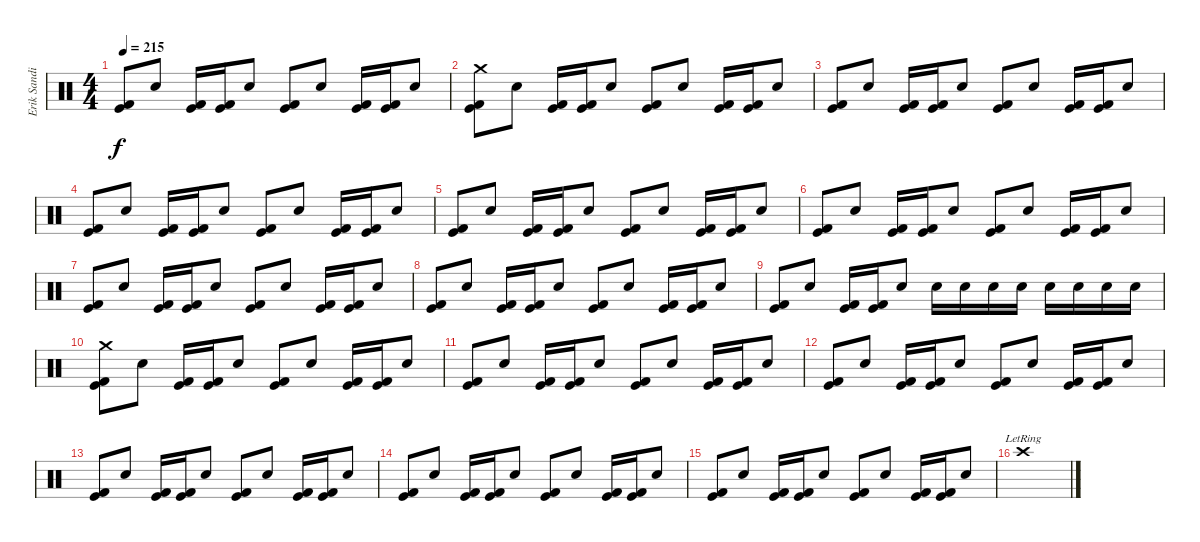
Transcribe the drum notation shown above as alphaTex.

\track ("Erik Sandin" "Erik Sandi") {instrument percussion}
\staff {score}
\articulation defaults
\ts (4 4)
\tempo 215
\clef neutral
\ks c
("Kick (hit) 2" "Kick (hit)").8{dy f} "Electric Snare (hit)".8 ("Kick (hit) 2" "Kick (hit)").16 ("Kick (hit) 2" "Kick (hit)").16 "Electric Snare (hit)".8 ("Kick (hit) 2" "Kick (hit)").8 "Electric Snare (hit)".8 ("Kick (hit) 2" "Kick (hit)").16 ("Kick (hit) 2" "Kick (hit)").16 "Electric Snare (hit)".8 |
("Crash medium (hit)" "Kick (hit) 2" "Kick (hit)").8 "Electric Snare (hit)".8 ("Kick (hit) 2" "Kick (hit)").16 ("Kick (hit) 2" "Kick (hit)").16 "Electric Snare (hit)".8 ("Kick (hit) 2" "Kick (hit)").8 "Electric Snare (hit)".8 ("Kick (hit) 2" "Kick (hit)").16 ("Kick (hit) 2" "Kick (hit)").16 "Electric Snare (hit)".8 |
("Kick (hit) 2" "Kick (hit)").8 "Electric Snare (hit)".8 ("Kick (hit) 2" "Kick (hit)").16 ("Kick (hit) 2" "Kick (hit)").16 "Electric Snare (hit)".8 ("Kick (hit) 2" "Kick (hit)").8 "Electric Snare (hit)".8 ("Kick (hit) 2" "Kick (hit)").16 ("Kick (hit) 2" "Kick (hit)").16 "Electric Snare (hit)".8 |
("Kick (hit) 2" "Kick (hit)").8 "Electric Snare (hit)".8 ("Kick (hit) 2" "Kick (hit)").16 ("Kick (hit) 2" "Kick (hit)").16 "Electric Snare (hit)".8 ("Kick (hit) 2" "Kick (hit)").8 "Electric Snare (hit)".8 ("Kick (hit) 2" "Kick (hit)").16 ("Kick (hit) 2" "Kick (hit)").16 "Electric Snare (hit)".8 |
("Kick (hit) 2" "Kick (hit)").8 "Electric Snare (hit)".8 ("Kick (hit) 2" "Kick (hit)").16 ("Kick (hit) 2" "Kick (hit)").16 "Electric Snare (hit)".8 ("Kick (hit) 2" "Kick (hit)").8 "Electric Snare (hit)".8 ("Kick (hit) 2" "Kick (hit)").16 ("Kick (hit) 2" "Kick (hit)").16 "Electric Snare (hit)".8 |
("Kick (hit) 2" "Kick (hit)").8 "Electric Snare (hit)".8 ("Kick (hit) 2" "Kick (hit)").16 ("Kick (hit) 2" "Kick (hit)").16 "Electric Snare (hit)".8 ("Kick (hit) 2" "Kick (hit)").8 "Electric Snare (hit)".8 ("Kick (hit) 2" "Kick (hit)").16 ("Kick (hit) 2" "Kick (hit)").16 "Electric Snare (hit)".8 |
("Kick (hit) 2" "Kick (hit)").8 "Electric Snare (hit)".8 ("Kick (hit) 2" "Kick (hit)").16 ("Kick (hit) 2" "Kick (hit)").16 "Electric Snare (hit)".8 ("Kick (hit) 2" "Kick (hit)").8 "Electric Snare (hit)".8 ("Kick (hit) 2" "Kick (hit)").16 ("Kick (hit) 2" "Kick (hit)").16 "Electric Snare (hit)".8 |
("Kick (hit) 2" "Kick (hit)").8 "Electric Snare (hit)".8 ("Kick (hit) 2" "Kick (hit)").16 ("Kick (hit) 2" "Kick (hit)").16 "Electric Snare (hit)".8 ("Kick (hit) 2" "Kick (hit)").8 "Electric Snare (hit)".8 ("Kick (hit) 2" "Kick (hit)").16 ("Kick (hit) 2" "Kick (hit)").16 "Electric Snare (hit)".8 |
("Kick (hit) 2" "Kick (hit)").8 "Electric Snare (hit)".8 ("Kick (hit) 2" "Kick (hit)").16 ("Kick (hit) 2" "Kick (hit)").16 "Electric Snare (hit)".8 "Electric Snare (hit)".16 "Electric Snare (hit)".16 "Electric Snare (hit)".16 "Electric Snare (hit)".16 "Electric Snare (hit)".16 "Electric Snare (hit)".16 "Electric Snare (hit)".16 "Electric Snare (hit)".16 |
("Crash medium (hit)" "Kick (hit) 2" "Kick (hit)").8 "Electric Snare (hit)".8 ("Kick (hit) 2" "Kick (hit)").16 ("Kick (hit) 2" "Kick (hit)").16 "Electric Snare (hit)".8 ("Kick (hit) 2" "Kick (hit)").8 "Electric Snare (hit)".8 ("Kick (hit) 2" "Kick (hit)").16 ("Kick (hit) 2" "Kick (hit)").16 "Electric Snare (hit)".8 |
("Kick (hit) 2" "Kick (hit)").8 "Electric Snare (hit)".8 ("Kick (hit) 2" "Kick (hit)").16 ("Kick (hit) 2" "Kick (hit)").16 "Electric Snare (hit)".8 ("Kick (hit) 2" "Kick (hit)").8 "Electric Snare (hit)".8 ("Kick (hit) 2" "Kick (hit)").16 ("Kick (hit) 2" "Kick (hit)").16 "Electric Snare (hit)".8 |
("Kick (hit) 2" "Kick (hit)").8 "Electric Snare (hit)".8 ("Kick (hit) 2" "Kick (hit)").16 ("Kick (hit) 2" "Kick (hit)").16 "Electric Snare (hit)".8 ("Kick (hit) 2" "Kick (hit)").8 "Electric Snare (hit)".8 ("Kick (hit) 2" "Kick (hit)").16 ("Kick (hit) 2" "Kick (hit)").16 "Electric Snare (hit)".8 |
("Kick (hit) 2" "Kick (hit)").8 "Electric Snare (hit)".8 ("Kick (hit) 2" "Kick (hit)").16 ("Kick (hit) 2" "Kick (hit)").16 "Electric Snare (hit)".8 ("Kick (hit) 2" "Kick (hit)").8 "Electric Snare (hit)".8 ("Kick (hit) 2" "Kick (hit)").16 ("Kick (hit) 2" "Kick (hit)").16 "Electric Snare (hit)".8 |
("Kick (hit) 2" "Kick (hit)").8 "Electric Snare (hit)".8 ("Kick (hit) 2" "Kick (hit)").16 ("Kick (hit) 2" "Kick (hit)").16 "Electric Snare (hit)".8 ("Kick (hit) 2" "Kick (hit)").8 "Electric Snare (hit)".8 ("Kick (hit) 2" "Kick (hit)").16 ("Kick (hit) 2" "Kick (hit)").16 "Electric Snare (hit)".8 |
("Kick (hit) 2" "Kick (hit)").8 "Electric Snare (hit)".8 ("Kick (hit) 2" "Kick (hit)").16 ("Kick (hit) 2" "Kick (hit)").16 "Electric Snare (hit)".8 ("Kick (hit) 2" "Kick (hit)").8 "Electric Snare (hit)".8 ("Kick (hit) 2" "Kick (hit)").16 ("Kick (hit) 2" "Kick (hit)").16 "Electric Snare (hit)".8 |
"Crash high (hit)"{lr}.1
